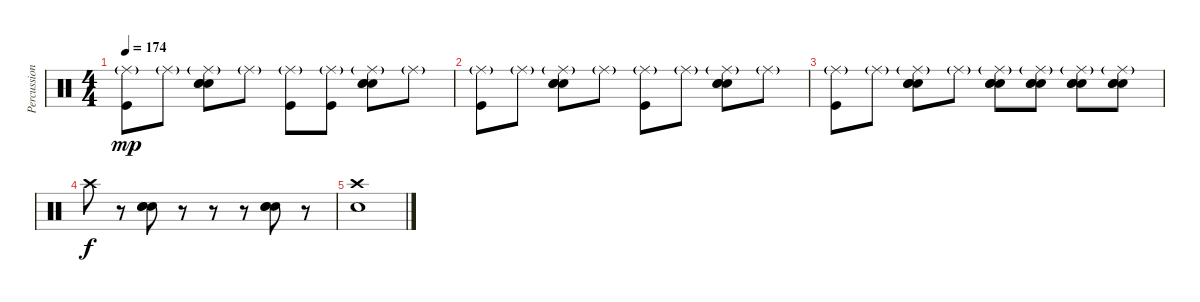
\track ("Percussion" "Percussion") {instrument percussion}
\staff {score}
\articulation defaults
\ts (4 4)
\tempo 174
\clef neutral
\ks c
("Ride (middle)"{g} "Kick (hit)").8{dy mp} "Ride (middle)"{g}.8 ("Ride (middle)"{g} "Snare (hit) 2" "Electric Snare (hit)" "Electric Snare (hit)").8 "Ride (middle)"{g}.8 ("Ride (middle)"{g} "Kick (hit)").8 ("Ride (middle)"{g} "Kick (hit)").8 ("Ride (middle)"{g} "Snare (hit) 2" "Electric Snare (hit)" "Electric Snare (hit)").8 "Ride (middle)"{g}.8 |
("Ride (middle)"{g} "Kick (hit)").8 "Ride (middle)"{g}.8 ("Ride (middle)"{g} "Snare (hit) 2" "Electric Snare (hit)" "Electric Snare (hit)").8 "Ride (middle)"{g}.8 ("Ride (middle)"{g} "Kick (hit)").8 "Ride (middle)"{g}.8 ("Ride (middle)"{g} "Snare (hit) 2" "Electric Snare (hit)" "Electric Snare (hit)").8 "Ride (middle)"{g}.8 |
("Ride (middle)"{g} "Kick (hit)").8 "Ride (middle)"{g}.8 ("Ride (middle)"{g} "Snare (hit) 2" "Electric Snare (hit)" "Electric Snare (hit)").8 "Ride (middle)"{g}.8 ("Ride (middle)"{g} "Snare (hit) 2" "Electric Snare (hit)" "Electric Snare (hit)").8 ("Ride (middle)"{g} "Snare (hit) 2" "Electric Snare (hit)" "Electric Snare (hit)").8 ("Ride (middle)"{g} "Snare (hit) 2" "Electric Snare (hit)" "Electric Snare (hit)").8 ("Ride (middle)"{g} "Snare (hit) 2" "Electric Snare (hit)" "Electric Snare (hit)").8 |
"Crash high (hit)".8{dy f} r.8 ("Snare (hit) 2" "Electric Snare (hit)" "Electric Snare (hit)").8 r.8 r.8 r.8 ("Snare (hit) 2" "Electric Snare (hit)" "Electric Snare (hit)").8 r.8 |
("Crash high (hit)" "Electric Snare (hit)").1
